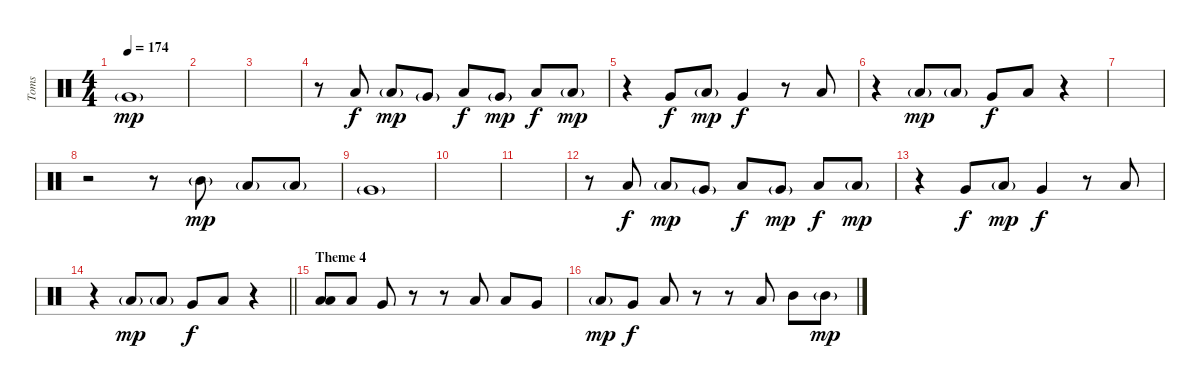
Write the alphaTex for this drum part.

\track ("Toms" "Toms") {instrument percussion}
\staff {score}
\articulation defaults
\ts (4 4)
\tempo 174
\clef neutral
\ks c "Very Low Tom (hit)"{g}.1{dy mp}
|
|
|
r.8 "Low Tom (hit)".8{dy f} "Low Tom (hit)"{g}.8{dy mp} "Very Low Tom (hit)"{g}.8 "Low Tom (hit)".8{dy f} "Very Low Tom (hit)"{g}.8{dy mp} "Low Tom (hit)".8{dy f} "Low Tom (hit)"{g}.8{dy mp} |
r.4 "Very Low Tom (hit)".8{dy f} "Low Floor Tom (hit)"{g}.8{dy mp} "Very Low Tom (hit)".4{dy f} r.8 "Low Floor Tom (hit)".8 |
r.4 "Low Tom (hit)"{g}.8{dy mp} "Low Tom (hit)"{g}.8 "Very Low Tom (hit)".8{dy f} "Low Floor Tom (hit)".8 r.4 |
|
r.2 r.8 "Mid Tom (hit)"{g}.8{dy mp} "Low Tom (hit)"{g}.8 "Low Tom (hit)"{g}.8 |
"Very Low Tom (hit)"{g}.1 |
|
|
r.8 "Low Tom (hit)".8{dy f} "Low Tom (hit)"{g}.8{dy mp} "Very Low Tom (hit)"{g}.8 "Low Tom (hit)".8{dy f} "Very Low Tom (hit)"{g}.8{dy mp} "Low Tom (hit)".8{dy f} "Low Tom (hit)"{g}.8{dy mp} |
r.4 "Very Low Tom (hit)".8{dy f} "Low Floor Tom (hit)"{g}.8{dy mp} "Very Low Tom (hit)".4{dy f} r.8 "Low Floor Tom (hit)".8 |
\barLineRight lightlight
r.4 "Low Tom (hit)"{g}.8{dy mp} "Low Tom (hit)"{g}.8 "Very Low Tom (hit)".8{dy f} "Low Floor Tom (hit)".8 r.4 |
\section ("" "Theme 4")
("Low Tom (hit)" "Low Floor Tom (hit)").8 "Low Tom (hit)".8 "Very Low Tom (hit)".8 r.8 r.8 "Low Floor Tom (hit)".8 "Low Floor Tom (hit)".8 "Very Low Tom (hit)".8 |
"Low Tom (hit)"{g}.8{dy mp} "Very Low Tom (hit)".8{dy f} "Low Floor Tom (hit)".8 r.8 r.8 "Low Floor Tom (hit)".8 "Mid Tom (hit)".8 "Mid Tom (hit)"{g}.8{dy mp}
